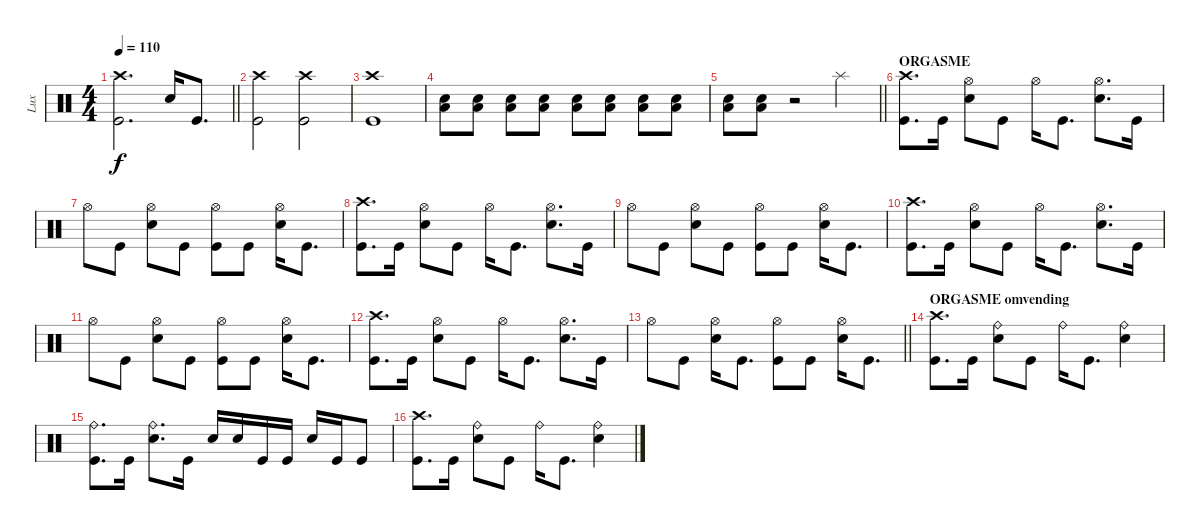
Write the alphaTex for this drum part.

\track ("Lux" "Lux") {mute instrument percussion}
\staff {score}
\articulation defaults
\ts (4 4)
\tempo 110
\clef neutral
\barLineRight lightlight
\ks c
("Crash high (hit)" "Kick (hit)").2{d dy f} "Snare (hit) 2".16 "Kick (hit)".8{d} |
("Crash high (hit)" "Kick (hit)").2 ("Crash high (hit)" "Kick (hit)").2 |
("Crash high (hit)" "Kick (hit)").1 |
("Low Tom (hit)" "Snare (hit) 2").8 ("Low Tom (hit)" "Snare (hit) 2").8 ("Low Tom (hit)" "Snare (hit) 2").8 ("Low Tom (hit)" "Snare (hit) 2").8 ("Low Tom (hit)" "Snare (hit) 2").8 ("Low Tom (hit)" "Snare (hit) 2").8 ("Low Tom (hit)" "Snare (hit) 2").8 ("Low Tom (hit)" "Snare (hit) 2").8 |
\barLineRight lightlight
("Low Tom (hit)" "Snare (hit) 2").8 ("Low Tom (hit)" "Snare (hit) 2").8 r.2 "Splash (hit)".4 |
\section ("" "ORGASME")
("Crash high (hit)" "Kick (hit)").8{d} "Kick (hit)".16 ("Hi-Hat (open)" "Snare (hit) 2").8 "Kick (hit)".8 "Hi-Hat (open)".16 "Kick (hit)".8{d} ("Hi-Hat (open)" "Snare (hit) 2").8{d} "Kick (hit)".16 |
"Hi-Hat (open)".8 "Kick (hit)".8 ("Hi-Hat (open)" "Snare (hit) 2").8 "Kick (hit)".8 ("Hi-Hat (open)" "Kick (hit)").8 "Kick (hit)".8 ("Hi-Hat (open)" "Snare (hit) 2").16 "Kick (hit)".8{d} |
("Crash high (hit)" "Kick (hit)").8{d} "Kick (hit)".16 ("Hi-Hat (open)" "Snare (hit) 2").8 "Kick (hit)".8 "Hi-Hat (open)".16 "Kick (hit)".8{d} ("Hi-Hat (open)" "Snare (hit) 2").8{d} "Kick (hit)".16 |
"Hi-Hat (open)".8 "Kick (hit)".8 ("Hi-Hat (open)" "Snare (hit) 2").8 "Kick (hit)".8 ("Hi-Hat (open)" "Kick (hit)").8 "Kick (hit)".8 ("Hi-Hat (open)" "Snare (hit) 2").16 "Kick (hit)".8{d} |
("Crash high (hit)" "Kick (hit)").8{d} "Kick (hit)".16 ("Hi-Hat (open)" "Snare (hit) 2").8 "Kick (hit)".8 "Hi-Hat (open)".16 "Kick (hit)".8{d} ("Hi-Hat (open)" "Snare (hit) 2").8{d} "Kick (hit)".16 |
"Hi-Hat (open)".8 "Kick (hit)".8 ("Hi-Hat (open)" "Snare (hit) 2").8 "Kick (hit)".8 ("Hi-Hat (open)" "Kick (hit)").8 "Kick (hit)".8 ("Hi-Hat (open)" "Snare (hit) 2").16 "Kick (hit)".8{d} |
("Crash high (hit)" "Kick (hit)").8{d} "Kick (hit)".16 ("Hi-Hat (open)" "Snare (hit) 2").8 "Kick (hit)".8 "Hi-Hat (open)".16 "Kick (hit)".8{d} ("Hi-Hat (open)" "Snare (hit) 2").8{d} "Kick (hit)".16 |
\barLineRight lightlight "Hi-Hat (open)".8 "Kick (hit)".8
("Hi-Hat (open)" "Snare (hit) 2").16 "Kick (hit)".8{d} ("Hi-Hat (open)" "Kick (hit)").8 "Kick (hit)".8 ("Hi-Hat (open)" "Snare (hit) 2").16 "Kick (hit)".8{d} |
\section ("" "ORGASME omvending")
("Crash high (hit)" "Kick (hit)").8{d} "Kick (hit)".16 ("Ride (bell)" "Snare (hit) 2").8 "Kick (hit)".8 "Ride (bell)".16 "Kick (hit)".8{d} ("Ride (bell)" "Snare (hit) 2").4 |
("Ride (bell)" "Kick (hit)").8{d} "Kick (hit)".16 ("Ride (bell)" "Snare (hit) 2").8{d} "Kick (hit)".16 "Snare (hit) 2".16 "Snare (hit) 2".16 "Kick (hit)".16 "Kick (hit)".16 "Snare (hit) 2".16 "Kick (hit)".16 "Kick (hit)".8 |
("Crash high (hit)" "Kick (hit)").8{d} "Kick (hit)".16 ("Ride (bell)" "Snare (hit) 2").8 "Kick (hit)".8 "Ride (bell)".16 "Kick (hit)".8{d} ("Ride (bell)" "Snare (hit) 2").4
